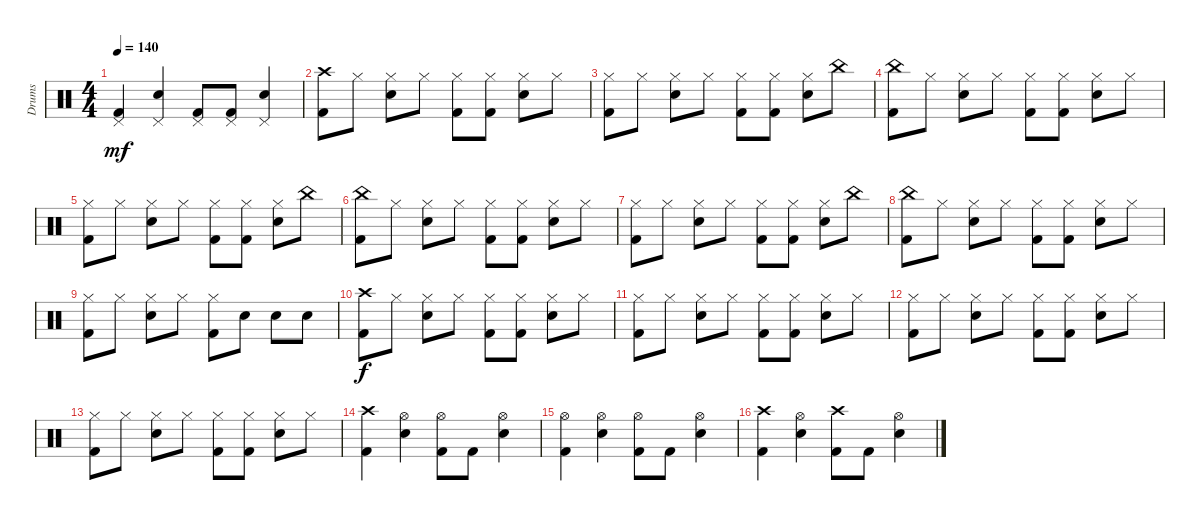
\track ("Drums" "Drums") {instrument percussion}
\staff {score}
\articulation defaults
\ts (4 4)
\tempo 140
\clef neutral
\ks c
("Pedal Hi-Hat (hit)" "Kick (hit) 2").4{dy mf} ("Pedal Hi-Hat (hit)" "Snare (hit) 2").4 ("Pedal Hi-Hat (hit)" "Kick (hit) 2").8 ("Pedal Hi-Hat (hit)" "Kick (hit) 2").8 ("Pedal Hi-Hat (hit)" "Snare (hit) 2").4 |
("Crash high (hit)" "Kick (hit) 2").8 "Hi-Hat (closed)".8 ("Hi-Hat (closed)" "Snare (hit) 2").8 "Hi-Hat (closed)".8 ("Hi-Hat (closed)" "Kick (hit) 2").8 ("Hi-Hat (closed)" "Kick (hit) 2").8 ("Hi-Hat (closed)" "Snare (hit) 2").8 "Hi-Hat (closed)".8 |
("Hi-Hat (closed)" "Kick (hit) 2").8 "Hi-Hat (closed)".8 ("Hi-Hat (closed)" "Snare (hit) 2").8 "Hi-Hat (closed)".8 ("Hi-Hat (closed)" "Kick (hit) 2").8 ("Hi-Hat (closed)" "Kick (hit) 2").8 ("Hi-Hat (closed)" "Snare (hit) 2").8 "China (hit)".8 |
("China (hit)" "Kick (hit) 2").8 "Hi-Hat (closed)".8 ("Hi-Hat (closed)" "Snare (hit) 2").8 "Hi-Hat (closed)".8 ("Hi-Hat (closed)" "Kick (hit) 2").8 ("Hi-Hat (closed)" "Kick (hit) 2").8 ("Hi-Hat (closed)" "Snare (hit) 2").8 "Hi-Hat (closed)".8 |
("Hi-Hat (closed)" "Kick (hit) 2").8 "Hi-Hat (closed)".8 ("Hi-Hat (closed)" "Snare (hit) 2").8 "Hi-Hat (closed)".8 ("Hi-Hat (closed)" "Kick (hit) 2").8 ("Hi-Hat (closed)" "Kick (hit) 2").8 ("Hi-Hat (closed)" "Snare (hit) 2").8 "China (hit)".8 |
("China (hit)" "Kick (hit) 2").8 "Hi-Hat (closed)".8 ("Hi-Hat (closed)" "Snare (hit) 2").8 "Hi-Hat (closed)".8 ("Hi-Hat (closed)" "Kick (hit) 2").8 ("Hi-Hat (closed)" "Kick (hit) 2").8 ("Hi-Hat (closed)" "Snare (hit) 2").8 "Hi-Hat (closed)".8 |
("Hi-Hat (closed)" "Kick (hit) 2").8 "Hi-Hat (closed)".8 ("Hi-Hat (closed)" "Snare (hit) 2").8 "Hi-Hat (closed)".8 ("Hi-Hat (closed)" "Kick (hit) 2").8 ("Hi-Hat (closed)" "Kick (hit) 2").8 ("Hi-Hat (closed)" "Snare (hit) 2").8 "China (hit)".8 |
("China (hit)" "Kick (hit) 2").8 "Hi-Hat (closed)".8 ("Hi-Hat (closed)" "Snare (hit) 2").8 "Hi-Hat (closed)".8 ("Hi-Hat (closed)" "Kick (hit) 2").8 ("Hi-Hat (closed)" "Kick (hit) 2").8 ("Hi-Hat (closed)" "Snare (hit) 2").8 "Hi-Hat (closed)".8 |
("Hi-Hat (closed)" "Kick (hit) 2").8 "Hi-Hat (closed)".8 ("Hi-Hat (closed)" "Snare (hit) 2").8 "Hi-Hat (closed)".8 ("Hi-Hat (closed)" "Kick (hit) 2").8 "Snare (hit) 2".8 "Snare (hit) 2".8 "Snare (hit) 2".8 |
("Crash high (hit)" "Kick (hit) 2").8{dy f} "Hi-Hat (closed)".8 ("Hi-Hat (closed)" "Snare (hit) 2").8 "Hi-Hat (closed)".8 ("Hi-Hat (closed)" "Kick (hit) 2").8 ("Hi-Hat (closed)" "Kick (hit) 2").8 ("Hi-Hat (closed)" "Snare (hit) 2").8 "Hi-Hat (closed)".8 |
("Hi-Hat (closed)" "Kick (hit) 2").8 "Hi-Hat (closed)".8 ("Hi-Hat (closed)" "Snare (hit) 2").8 "Hi-Hat (closed)".8 ("Hi-Hat (closed)" "Kick (hit) 2").8 ("Hi-Hat (closed)" "Kick (hit) 2").8 ("Hi-Hat (closed)" "Snare (hit) 2").8 "Hi-Hat (closed)".8 |
("Hi-Hat (closed)" "Kick (hit) 2").8 "Hi-Hat (closed)".8 ("Hi-Hat (closed)" "Snare (hit) 2").8 "Hi-Hat (closed)".8 ("Hi-Hat (closed)" "Kick (hit) 2").8 ("Hi-Hat (closed)" "Kick (hit) 2").8 ("Hi-Hat (closed)" "Snare (hit) 2").8 "Hi-Hat (closed)".8 |
("Hi-Hat (closed)" "Kick (hit) 2").8 "Hi-Hat (closed)".8 ("Hi-Hat (closed)" "Snare (hit) 2").8 "Hi-Hat (closed)".8 ("Hi-Hat (closed)" "Kick (hit) 2").8 ("Hi-Hat (closed)" "Kick (hit) 2").8 ("Hi-Hat (closed)" "Snare (hit) 2").8 "Hi-Hat (closed)".8 |
("Crash high (hit)" "Kick (hit) 2").4 ("Hi-Hat (open)" "Snare (hit) 2").4 ("Hi-Hat (open)" "Kick (hit) 2").8 "Kick (hit) 2".8 ("Hi-Hat (open)" "Snare (hit) 2").4 |
("Hi-Hat (open)" "Kick (hit) 2").4 ("Hi-Hat (open)" "Snare (hit) 2").4 ("Hi-Hat (open)" "Kick (hit) 2").8 "Kick (hit) 2".8 ("Hi-Hat (open)" "Snare (hit) 2").4 |
("Crash high (hit)" "Kick (hit) 2").4 ("Hi-Hat (open)" "Snare (hit) 2").4 ("Crash high (hit)" "Kick (hit) 2").8 "Kick (hit) 2".8 ("Hi-Hat (open)" "Snare (hit) 2").4
